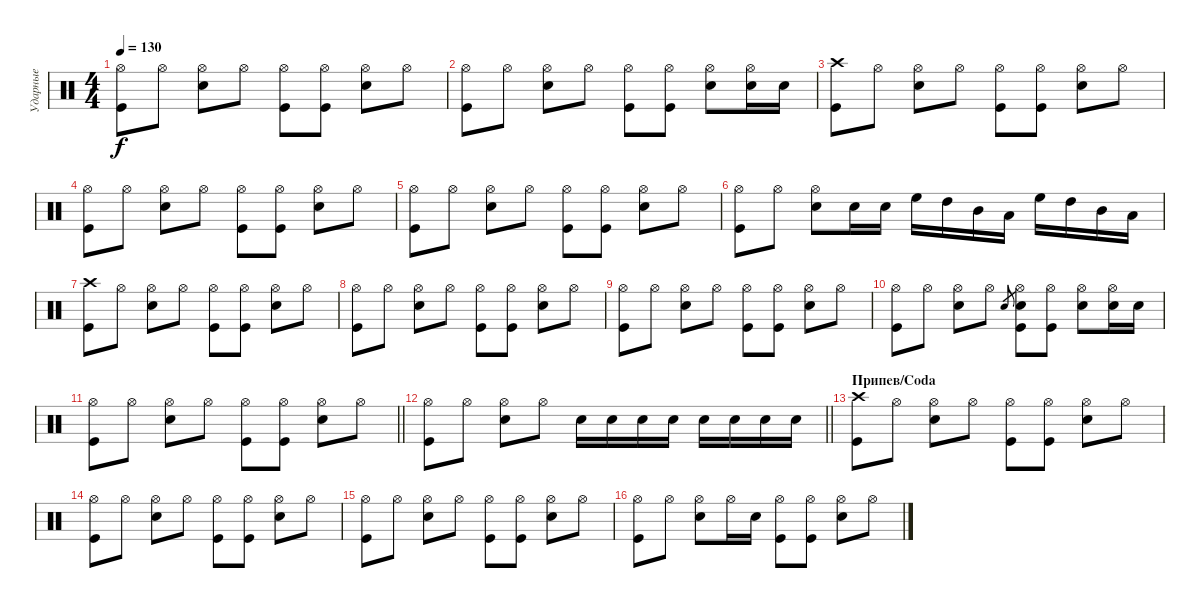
\track ("Ударные" "Ударные") {instrument percussion}
\staff {score}
\articulation defaults
\ts (4 4)
\tempo 130
\clef neutral
\ks c
("Hi-Hat (open)" "Kick (hit)").8{dy f} "Hi-Hat (open)".8 ("Hi-Hat (open)" "Snare (hit) 2").8 "Hi-Hat (open)".8 ("Hi-Hat (open)" "Kick (hit)").8 ("Hi-Hat (open)" "Kick (hit)").8 ("Hi-Hat (open)" "Snare (hit) 2").8 "Hi-Hat (open)".8 |
("Hi-Hat (open)" "Kick (hit)").8 "Hi-Hat (open)".8 ("Hi-Hat (open)" "Snare (hit) 2").8 "Hi-Hat (open)".8 ("Hi-Hat (open)" "Kick (hit)").8 ("Hi-Hat (open)" "Kick (hit)").8 ("Hi-Hat (open)" "Snare (hit) 2").8 ("Hi-Hat (open)" "Snare (hit) 2").16 "Snare (hit) 2".16 |
("Crash high (hit)" "Kick (hit)").8 "Hi-Hat (open)".8 ("Hi-Hat (open)" "Snare (hit) 2").8 "Hi-Hat (open)".8 ("Hi-Hat (open)" "Kick (hit)").8 ("Hi-Hat (open)" "Kick (hit)").8 ("Hi-Hat (open)" "Snare (hit) 2").8 "Hi-Hat (open)".8 |
("Hi-Hat (open)" "Kick (hit)").8 "Hi-Hat (open)".8 ("Hi-Hat (open)" "Snare (hit) 2").8 "Hi-Hat (open)".8 ("Hi-Hat (open)" "Kick (hit)").8 ("Hi-Hat (open)" "Kick (hit)").8 ("Hi-Hat (open)" "Snare (hit) 2").8 "Hi-Hat (open)".8 |
("Hi-Hat (open)" "Kick (hit)").8 "Hi-Hat (open)".8 ("Hi-Hat (open)" "Snare (hit) 2").8 "Hi-Hat (open)".8 ("Hi-Hat (open)" "Kick (hit)").8 ("Hi-Hat (open)" "Kick (hit)").8 ("Hi-Hat (open)" "Snare (hit) 2").8 "Hi-Hat (open)".8 |
("Hi-Hat (open)" "Kick (hit)").8 "Hi-Hat (open)".8 ("Hi-Hat (open)" "Snare (hit) 2").8 "Snare (hit) 2".16 "Snare (hit) 2".16 "High Floor Tom (hit)".16 "High Tom (hit)".16 "Mid Tom (hit)".16 "Low Tom (hit)".16 "High Floor Tom (hit)".16 "High Tom (hit)".16 "Mid Tom (hit)".16 "Low Tom (hit)".16 |
("Crash high (hit)" "Kick (hit)").8 "Hi-Hat (open)".8 ("Hi-Hat (open)" "Snare (hit) 2").8 "Hi-Hat (open)".8 ("Hi-Hat (open)" "Kick (hit)").8 ("Hi-Hat (open)" "Kick (hit)").8 ("Hi-Hat (open)" "Snare (hit) 2").8 "Hi-Hat (open)".8 |
("Hi-Hat (open)" "Kick (hit)").8 "Hi-Hat (open)".8 ("Hi-Hat (open)" "Snare (hit) 2").8 "Hi-Hat (open)".8 ("Hi-Hat (open)" "Kick (hit)").8 ("Hi-Hat (open)" "Kick (hit)").8 ("Hi-Hat (open)" "Snare (hit) 2").8 "Hi-Hat (open)".8 |
("Hi-Hat (open)" "Kick (hit)").8 "Hi-Hat (open)".8 ("Hi-Hat (open)" "Snare (hit) 2").8 "Hi-Hat (open)".8 ("Hi-Hat (open)" "Kick (hit)").8 ("Hi-Hat (open)" "Kick (hit)").8 ("Hi-Hat (open)" "Snare (hit) 2").8 "Hi-Hat (open)".8 |
("Hi-Hat (open)" "Kick (hit)").8 "Hi-Hat (open)".8 ("Hi-Hat (open)" "Snare (hit) 2").8 "Hi-Hat (open)".8 "Snare (hit) 2".8{gr} ("Hi-Hat (open)" "Snare (hit) 2" "Kick (hit)").8 ("Hi-Hat (open)" "Kick (hit)").8 ("Hi-Hat (open)" "Snare (hit) 2").8 ("Hi-Hat (open)" "Snare (hit) 2").16 "Snare (hit) 2".16 |
\barLineRight lightlight
("Hi-Hat (open)" "Kick (hit)").8 "Hi-Hat (open)".8 ("Hi-Hat (open)" "Snare (hit) 2").8 "Hi-Hat (open)".8 ("Hi-Hat (open)" "Kick (hit)").8 ("Hi-Hat (open)" "Kick (hit)").8 ("Hi-Hat (open)" "Snare (hit) 2").8 "Hi-Hat (open)".8 |
\barLineRight lightlight
("Hi-Hat (open)" "Kick (hit)").8 "Hi-Hat (open)".8 ("Hi-Hat (open)" "Snare (hit) 2").8 "Hi-Hat (open)".8 "Snare (hit) 2".16 "Snare (hit) 2".16 "Snare (hit) 2".16 "Snare (hit) 2".16 "Snare (hit) 2".16 "Snare (hit) 2".16 "Snare (hit) 2".16 "Snare (hit) 2".16 |
\section ("" "Припев/Coda")
("Crash high (hit)" "Kick (hit)").8 "Hi-Hat (open)".8 ("Hi-Hat (open)" "Snare (hit) 2").8 "Hi-Hat (open)".8 ("Hi-Hat (open)" "Kick (hit)").8 ("Hi-Hat (open)" "Kick (hit)").8 ("Hi-Hat (open)" "Snare (hit) 2").8 "Hi-Hat (open)".8 |
("Hi-Hat (open)" "Kick (hit)").8 "Hi-Hat (open)".8 ("Hi-Hat (open)" "Snare (hit) 2").8 "Hi-Hat (open)".8 ("Hi-Hat (open)" "Kick (hit)").8 ("Hi-Hat (open)" "Kick (hit)").8 ("Hi-Hat (open)" "Snare (hit) 2").8 "Hi-Hat (open)".8 |
("Hi-Hat (open)" "Kick (hit)").8 "Hi-Hat (open)".8 ("Hi-Hat (open)" "Snare (hit) 2").8 "Hi-Hat (open)".8 ("Hi-Hat (open)" "Kick (hit)").8 ("Hi-Hat (open)" "Kick (hit)").8 ("Hi-Hat (open)" "Snare (hit) 2").8 "Hi-Hat (open)".8 |
("Hi-Hat (open)" "Kick (hit)").8 "Hi-Hat (open)".8 ("Hi-Hat (open)" "Snare (hit) 2").8 "Hi-Hat (open)".16 "Snare (hit) 2".16 ("Hi-Hat (open)" "Kick (hit)").8 ("Hi-Hat (open)" "Kick (hit)").8 ("Hi-Hat (open)" "Snare (hit) 2").8 "Hi-Hat (open)".8
